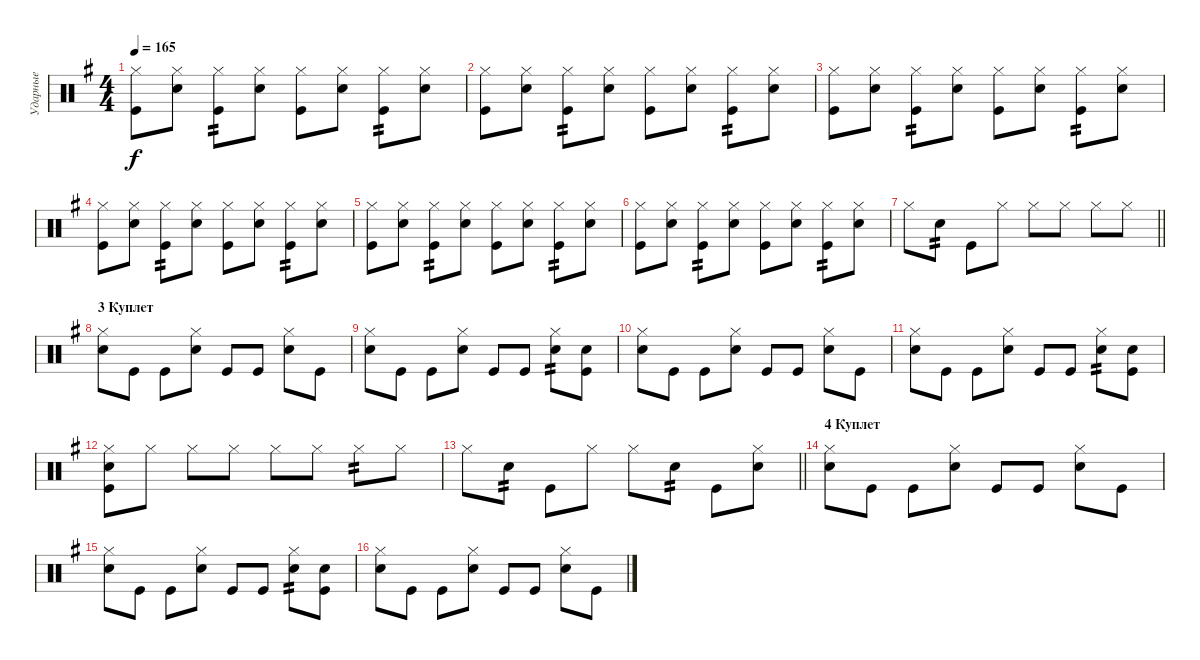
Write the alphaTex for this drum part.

\track ("Ударные" "Ударные") {instrument percussion}
\staff {score}
\articulation defaults
\ts (4 4)
\tempo 165
\clef neutral
\ks eminor
("Hi-Hat (closed)" "Kick (hit)").8{dy f} ("Hi-Hat (closed)" "Electric Snare (hit)").8 ("Hi-Hat (closed)" "Kick (hit)").8{tp 2} ("Hi-Hat (closed)" "Electric Snare (hit)").8 ("Hi-Hat (closed)" "Kick (hit)").8 ("Hi-Hat (closed)" "Electric Snare (hit)").8 ("Hi-Hat (closed)" "Kick (hit)").8{tp 2} ("Hi-Hat (closed)" "Electric Snare (hit)").8 |
("Hi-Hat (closed)" "Kick (hit)").8 ("Hi-Hat (closed)" "Electric Snare (hit)").8 ("Hi-Hat (closed)" "Kick (hit)").8{tp 2} ("Hi-Hat (closed)" "Electric Snare (hit)").8 ("Hi-Hat (closed)" "Kick (hit)").8 ("Hi-Hat (closed)" "Electric Snare (hit)").8 ("Hi-Hat (closed)" "Kick (hit)").8{tp 2} ("Hi-Hat (closed)" "Electric Snare (hit)").8 |
("Hi-Hat (closed)" "Kick (hit)").8 ("Hi-Hat (closed)" "Electric Snare (hit)").8 ("Hi-Hat (closed)" "Kick (hit)").8{tp 2} ("Hi-Hat (closed)" "Electric Snare (hit)").8 ("Hi-Hat (closed)" "Kick (hit)").8 ("Hi-Hat (closed)" "Electric Snare (hit)").8 ("Hi-Hat (closed)" "Kick (hit)").8{tp 2} ("Hi-Hat (closed)" "Electric Snare (hit)").8 |
("Hi-Hat (closed)" "Kick (hit)").8 ("Hi-Hat (closed)" "Electric Snare (hit)").8 ("Hi-Hat (closed)" "Kick (hit)").8{tp 2} ("Hi-Hat (closed)" "Electric Snare (hit)").8 ("Hi-Hat (closed)" "Kick (hit)").8 ("Hi-Hat (closed)" "Electric Snare (hit)").8 ("Hi-Hat (closed)" "Kick (hit)").8{tp 2} ("Hi-Hat (closed)" "Electric Snare (hit)").8 |
("Hi-Hat (closed)" "Kick (hit)").8 ("Hi-Hat (closed)" "Electric Snare (hit)").8 ("Hi-Hat (closed)" "Kick (hit)").8{tp 2} ("Hi-Hat (closed)" "Electric Snare (hit)").8 ("Hi-Hat (closed)" "Kick (hit)").8 ("Hi-Hat (closed)" "Electric Snare (hit)").8 ("Hi-Hat (closed)" "Kick (hit)").8{tp 2} ("Hi-Hat (closed)" "Electric Snare (hit)").8 |
("Hi-Hat (closed)" "Kick (hit)").8 ("Hi-Hat (closed)" "Electric Snare (hit)").8 ("Hi-Hat (closed)" "Kick (hit)").8{tp 2} ("Hi-Hat (closed)" "Electric Snare (hit)").8 ("Hi-Hat (closed)" "Kick (hit)").8 ("Hi-Hat (closed)" "Electric Snare (hit)").8 ("Hi-Hat (closed)" "Kick (hit)").8{tp 2} ("Hi-Hat (closed)" "Electric Snare (hit)").8 |
\barLineRight lightlight "Hi-Hat (closed)".8 "Electric Snare (hit)".8{tp 2} "Kick (hit)".8 "Hi-Hat (closed)".8 "Hi-Hat (closed)".8 "Hi-Hat (closed)".8 "Hi-Hat (closed)".8 "Hi-Hat (closed)".8
|
\section ("" "3 Куплет")
("Hi-Hat (closed)" "Electric Snare (hit)").8 "Kick (hit)".8 "Kick (hit)".8 ("Hi-Hat (closed)" "Electric Snare (hit)").8 "Kick (hit)".8 "Kick (hit)".8 ("Hi-Hat (closed)" "Electric Snare (hit)").8 "Kick (hit)".8 |
("Hi-Hat (closed)" "Electric Snare (hit)").8 "Kick (hit)".8 "Kick (hit)".8 ("Hi-Hat (closed)" "Electric Snare (hit)").8 "Kick (hit)".8 "Kick (hit)".8 ("Hi-Hat (closed)" "Electric Snare (hit)").8{tp 2} ("Electric Snare (hit)" "Kick (hit)").8 |
("Hi-Hat (closed)" "Electric Snare (hit)").8 "Kick (hit)".8 "Kick (hit)".8 ("Hi-Hat (closed)" "Electric Snare (hit)").8 "Kick (hit)".8 "Kick (hit)".8 ("Hi-Hat (closed)" "Electric Snare (hit)").8 "Kick (hit)".8 |
("Hi-Hat (closed)" "Electric Snare (hit)").8 "Kick (hit)".8 "Kick (hit)".8 ("Hi-Hat (closed)" "Electric Snare (hit)").8 "Kick (hit)".8 "Kick (hit)".8 ("Hi-Hat (closed)" "Electric Snare (hit)").8{tp 2} ("Electric Snare (hit)" "Kick (hit)").8 |
("Hi-Hat (closed)" "Electric Snare (hit)" "Kick (hit)").8 "Hi-Hat (closed)".8 "Hi-Hat (closed)".8 "Hi-Hat (closed)".8 "Hi-Hat (closed)".8 "Hi-Hat (closed)".8 "Hi-Hat (closed)".8{tp 2} "Hi-Hat (closed)".8 |
\barLineRight lightlight "Hi-Hat (closed)".8 "Electric Snare (hit)".8{tp 2} "Kick (hit)".8 "Hi-Hat (closed)".8 "Hi-Hat (closed)".8 "Electric Snare (hit)".8{tp 2} "Kick (hit)".8
("Hi-Hat (closed)" "Electric Snare (hit)").8 |
\section ("" "4 Куплет")
("Hi-Hat (closed)" "Electric Snare (hit)").8 "Kick (hit)".8 "Kick (hit)".8 ("Hi-Hat (closed)" "Electric Snare (hit)").8 "Kick (hit)".8 "Kick (hit)".8 ("Hi-Hat (closed)" "Electric Snare (hit)").8 "Kick (hit)".8 |
("Hi-Hat (closed)" "Electric Snare (hit)").8 "Kick (hit)".8 "Kick (hit)".8 ("Hi-Hat (closed)" "Electric Snare (hit)").8 "Kick (hit)".8 "Kick (hit)".8 ("Hi-Hat (closed)" "Electric Snare (hit)").8{tp 2} ("Electric Snare (hit)" "Kick (hit)").8 |
("Hi-Hat (closed)" "Electric Snare (hit)").8 "Kick (hit)".8 "Kick (hit)".8 ("Hi-Hat (closed)" "Electric Snare (hit)").8 "Kick (hit)".8 "Kick (hit)".8 ("Hi-Hat (closed)" "Electric Snare (hit)").8 "Kick (hit)".8
